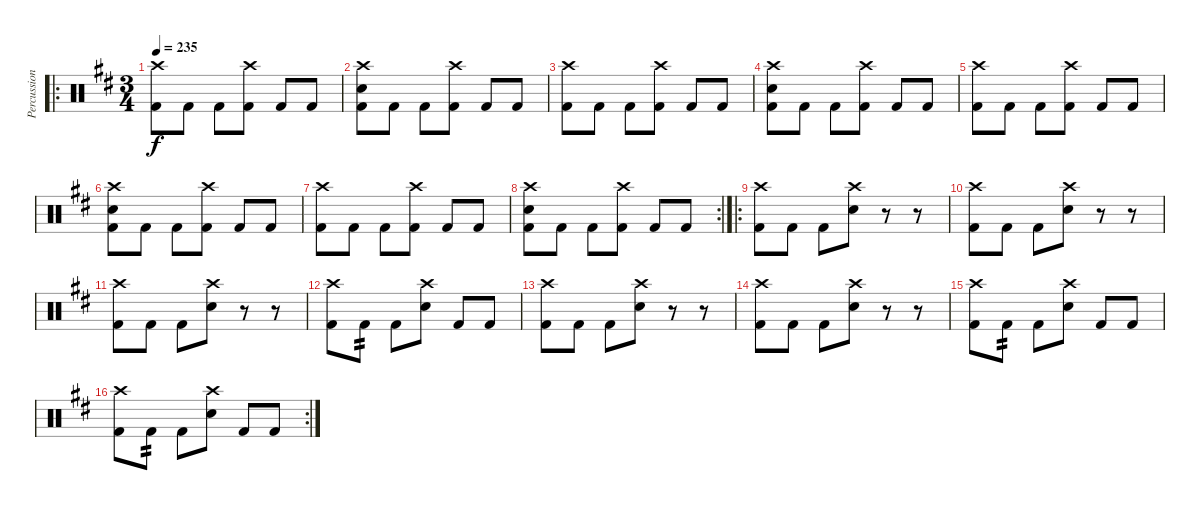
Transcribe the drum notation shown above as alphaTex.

\track ("Percussion" "Percussion") {instrument percussion}
\staff {score}
\articulation defaults
\ro
\ts (3 4)
\tempo 235
\clef neutral
\ks d
("Crash high (hit)" "Kick (hit) 2").8{dy f} "Kick (hit) 2".8 "Kick (hit) 2".8 ("Crash high (hit)" "Kick (hit) 2").8 "Kick (hit) 2".8 "Kick (hit) 2".8 |
("Crash high (hit)" "Electric Snare (hit)" "Kick (hit) 2").8 "Kick (hit) 2".8 "Kick (hit) 2".8 ("Crash high (hit)" "Kick (hit) 2").8 "Kick (hit) 2".8 "Kick (hit) 2".8 |
("Crash high (hit)" "Kick (hit) 2").8 "Kick (hit) 2".8 "Kick (hit) 2".8 ("Crash high (hit)" "Kick (hit) 2").8 "Kick (hit) 2".8 "Kick (hit) 2".8 |
("Crash high (hit)" "Electric Snare (hit)" "Kick (hit) 2").8 "Kick (hit) 2".8 "Kick (hit) 2".8 ("Crash high (hit)" "Kick (hit) 2").8 "Kick (hit) 2".8 "Kick (hit) 2".8 |
("Crash high (hit)" "Kick (hit) 2").8 "Kick (hit) 2".8 "Kick (hit) 2".8 ("Crash high (hit)" "Kick (hit) 2").8 "Kick (hit) 2".8 "Kick (hit) 2".8 |
("Crash high (hit)" "Electric Snare (hit)" "Kick (hit) 2").8 "Kick (hit) 2".8 "Kick (hit) 2".8 ("Crash high (hit)" "Kick (hit) 2").8 "Kick (hit) 2".8 "Kick (hit) 2".8 |
("Crash high (hit)" "Kick (hit) 2").8 "Kick (hit) 2".8 "Kick (hit) 2".8 ("Crash high (hit)" "Kick (hit) 2").8 "Kick (hit) 2".8 "Kick (hit) 2".8 |
\rc 2
("Crash high (hit)" "Electric Snare (hit)" "Kick (hit) 2").8 "Kick (hit) 2".8 "Kick (hit) 2".8 ("Crash high (hit)" "Kick (hit) 2").8 "Kick (hit) 2".8 "Kick (hit) 2".8 |
\ro
("Crash high (hit)" "Kick (hit) 2").8 "Kick (hit) 2".8 "Kick (hit) 2".8 ("Crash high (hit)" "Electric Snare (hit)").8 r.8 r.8 |
("Crash high (hit)" "Kick (hit) 2").8 "Kick (hit) 2".8 "Kick (hit) 2".8 ("Crash high (hit)" "Electric Snare (hit)").8 r.8 r.8 |
("Crash high (hit)" "Kick (hit) 2").8 "Kick (hit) 2".8 "Kick (hit) 2".8 ("Crash high (hit)" "Electric Snare (hit)").8 r.8 r.8 |
("Crash high (hit)" "Kick (hit) 2").8 "Kick (hit) 2".8{tp 2} "Kick (hit) 2".8 ("Crash high (hit)" "Electric Snare (hit)").8 "Kick (hit) 2".8 "Kick (hit) 2".8 |
("Crash high (hit)" "Kick (hit) 2").8 "Kick (hit) 2".8 "Kick (hit) 2".8 ("Crash high (hit)" "Electric Snare (hit)").8 r.8 r.8 |
("Crash high (hit)" "Kick (hit) 2").8 "Kick (hit) 2".8 "Kick (hit) 2".8 ("Crash high (hit)" "Electric Snare (hit)").8 r.8 r.8 |
("Crash high (hit)" "Kick (hit) 2").8 "Kick (hit) 2".8{tp 2} "Kick (hit) 2".8 ("Crash high (hit)" "Electric Snare (hit)").8 "Kick (hit) 2".8 "Kick (hit) 2".8 |
\rc 2
("Crash high (hit)" "Kick (hit) 2").8 "Kick (hit) 2".8{tp 2} "Kick (hit) 2".8 ("Crash high (hit)" "Electric Snare (hit)").8 "Kick (hit) 2".8 "Kick (hit) 2".8
